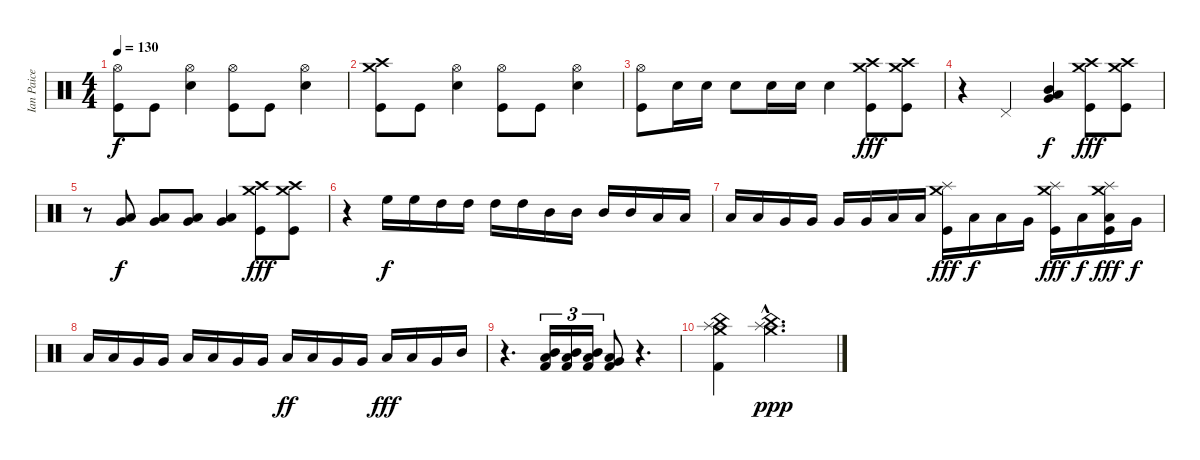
\track ("Ian Paice - Drums" "Ian Paice ") {instrument percussion}
\staff {score}
\articulation defaults
\ts (4 4)
\tempo 130
\clef neutral
\ks c
("Hi-Hat (open)" "Kick (hit)").8{dy f} "Kick (hit)".8 ("Hi-Hat (open)" "Snare (hit) 2").4 ("Hi-Hat (open)" "Kick (hit)").8 "Kick (hit)".8 ("Hi-Hat (open)" "Snare (hit) 2").4 |
("Crash high (hit)" "Kick (hit)" "Crash medium (hit)").8 "Kick (hit)".8 ("Hi-Hat (open)" "Snare (hit) 2").4 ("Hi-Hat (open)" "Kick (hit)").8 "Kick (hit)".8 ("Hi-Hat (open)" "Snare (hit) 2").4 |
("Hi-Hat (open)" "Kick (hit)").8 "Snare (hit) 2".16 "Snare (hit) 2".16 "Snare (hit) 2".8 "Snare (hit) 2".16 "Snare (hit) 2".16 "Snare (hit) 2".4 ("Crash medium (hit)" "Crash high (hit)" "Kick (hit)").8{dy fff} ("Crash medium (hit)" "Crash high (hit)" "Kick (hit)").8 |
r.4 "Pedal Hi-Hat (hit)".4 ("Mid Tom (hit)" "Low Tom (hit)" "Very Low Tom (hit)").4{dy f} ("Crash medium (hit)" "Crash high (hit)" "Kick (hit)").8{dy fff} ("Crash medium (hit)" "Crash high (hit)" "Kick (hit)").8 |
r.8 ("Low Tom (hit)" "Very Low Tom (hit)").8{dy f} ("Low Tom (hit)" "Very Low Tom (hit)").8 ("Low Tom (hit)" "Very Low Tom (hit)").8 ("Low Tom (hit)" "Very Low Tom (hit)").4 ("Crash medium (hit)" "Crash high (hit)" "Kick (hit)").8{dy fff} ("Crash medium (hit)" "Crash high (hit)" "Kick (hit)").8 |
r.4 "High Floor Tom (hit)".16{dy f} "High Floor Tom (hit)".16 "High Tom (hit)".16 "High Tom (hit)".16 "High Tom (hit)".16 "High Tom (hit)".16 "Mid Tom (hit)".16 "Mid Tom (hit)".16 "Mid Tom (hit)".16 "Mid Tom (hit)".16 "Low Tom (hit)".16 "Low Tom (hit)".16 |
"Low Tom (hit)".16 "Low Tom (hit)".16 "Very Low Tom (hit)".16 "Very Low Tom (hit)".16 "Very Low Tom (hit)".16 "Very Low Tom (hit)".16 "Low Floor Tom (hit)".16 "Low Floor Tom (hit)".16 ("Splash (hit)" "Crash medium (hit)" "Kick (hit)").16{dy fff} "Low Tom (hit)".16{dy f} "Low Tom (hit)".16 "Very Low Tom (hit)".16 ("Splash (hit)" "Crash medium (hit)" "Kick (hit)").16{dy fff} "Low Tom (hit)".16{dy f} ("Low Tom (hit)" "Splash (hit)" "Crash medium (hit)" "Kick (hit)").16{dy fff} "Very Low Tom (hit)".16{dy f} |
"Low Tom (hit)".16 "Low Tom (hit)".16 "Very Low Tom (hit)".16 "Very Low Tom (hit)".16 "Low Tom (hit)".16 "Low Tom (hit)".16 "Very Low Tom (hit)".16 "Very Low Tom (hit)".16 "Low Tom (hit)".16{dy ff} "Low Tom (hit)".16 "Very Low Tom (hit)".16 "Very Low Tom (hit)".16 "Low Tom (hit)".16{dy fff} "Low Tom (hit)".16 "Very Low Tom (hit)".16 "Mid Tom (hit)".16 |
r.4{d} ("Low Tom (hit)" "Mid Tom (hit)" "Kick (hit) 2").16{tu (3 2)} ("Mid Tom (hit)" "Low Tom (hit)" "Kick (hit) 2").16{tu (3 2)} ("Low Tom (hit)" "Mid Tom (hit)" "Kick (hit) 2").16{tu (3 2)} ("Low Tom (hit)" "Very Low Tom (hit)" "Kick (hit) 2").8 r.4{d} |
("China (hit)" "Splash (hit)" "Crash medium (hit)" "Kick (hit) 2").4 ("China (hit)"{hac} "Splash (hit)"{hac} "Crash medium (hit)"{hac}).2{d dy ppp}
